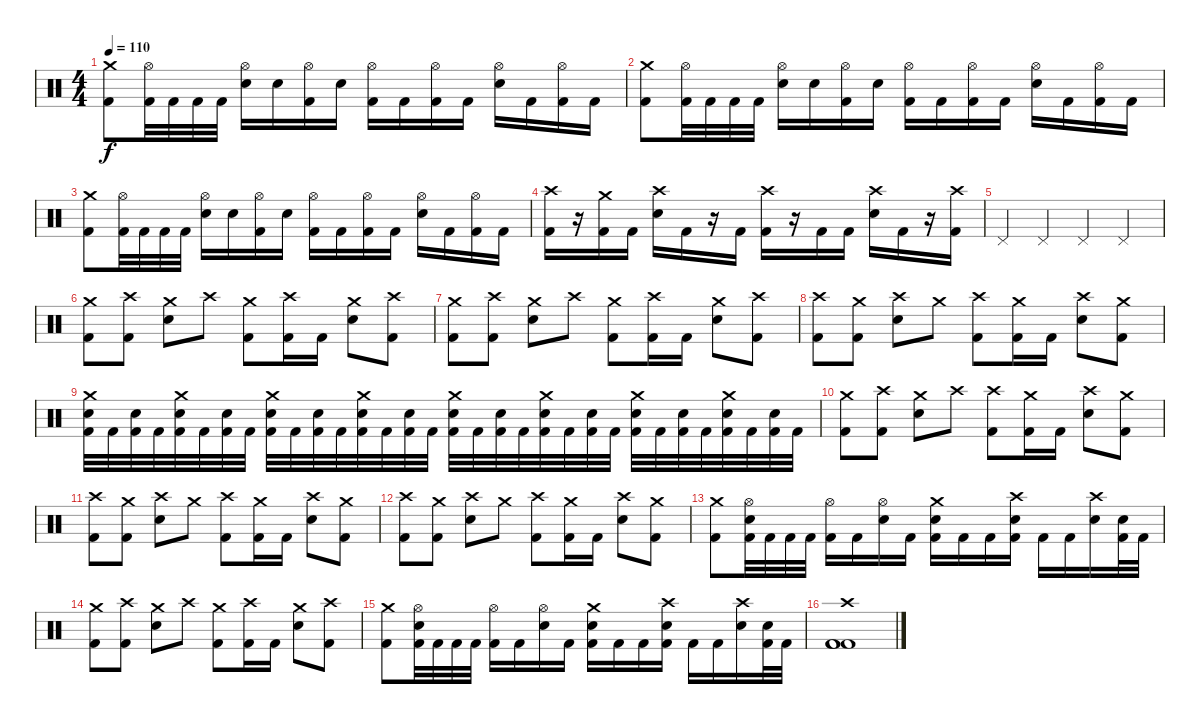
\track "" {instrument percussion}
\staff {score}
\articulation defaults
\ts (4 4)
\tempo 110
\clef neutral
\ks c
("Crash medium (hit)" "Kick (hit) 2").8{dy f} ("Hi-Hat (open)" "Kick (hit) 2").32 "Kick (hit) 2".32 "Kick (hit) 2".32 "Kick (hit) 2".32 ("Hi-Hat (open)" "Electric Snare (hit)").16 "Electric Snare (hit)".16 ("Hi-Hat (open)" "Kick (hit) 2").16 "Electric Snare (hit)".16 ("Hi-Hat (open)" "Kick (hit) 2").16 "Kick (hit) 2".16 ("Hi-Hat (open)" "Kick (hit) 2").16 "Kick (hit) 2".16 ("Hi-Hat (open)" "Electric Snare (hit)").16 "Kick (hit) 2".16 ("Hi-Hat (open)" "Kick (hit) 2").16 "Kick (hit) 2".16 |
("Crash medium (hit)" "Kick (hit) 2").8 ("Hi-Hat (open)" "Kick (hit) 2").32 "Kick (hit) 2".32 "Kick (hit) 2".32 "Kick (hit) 2".32 ("Hi-Hat (open)" "Electric Snare (hit)").16 "Electric Snare (hit)".16 ("Hi-Hat (open)" "Kick (hit) 2").16 "Electric Snare (hit)".16 ("Hi-Hat (open)" "Kick (hit) 2").16 "Kick (hit) 2".16 ("Hi-Hat (open)" "Kick (hit) 2").16 "Kick (hit) 2".16 ("Hi-Hat (open)" "Electric Snare (hit)").16 "Kick (hit) 2".16 ("Hi-Hat (open)" "Kick (hit) 2").16 "Kick (hit) 2".16 |
("Crash medium (hit)" "Kick (hit) 2").8 ("Hi-Hat (open)" "Kick (hit) 2").32 "Kick (hit) 2".32 "Kick (hit) 2".32 "Kick (hit) 2".32 ("Hi-Hat (open)" "Electric Snare (hit)").16 "Electric Snare (hit)".16 ("Hi-Hat (open)" "Kick (hit) 2").16 "Electric Snare (hit)".16 ("Hi-Hat (open)" "Kick (hit) 2").16 "Kick (hit) 2".16 ("Hi-Hat (open)" "Kick (hit) 2").16 "Kick (hit) 2".16 ("Hi-Hat (open)" "Electric Snare (hit)").16 "Kick (hit) 2".16 ("Hi-Hat (open)" "Kick (hit) 2").16 "Kick (hit) 2".16 |
("Crash high (hit)" "Kick (hit) 2").16 r.16 ("Crash medium (hit)" "Kick (hit) 2").16 "Kick (hit) 2".16 ("Crash high (hit)" "Snare (hit) 2").16 "Kick (hit) 2".16 r.16 "Kick (hit) 2".16 ("Crash high (hit)" "Kick (hit) 2").16 r.16 "Kick (hit) 2".16 "Kick (hit) 2".16 ("Crash high (hit)" "Snare (hit) 2").16 "Kick (hit) 2".16 r.16 ("Crash high (hit)" "Kick (hit) 2").16 |
"Pedal Hi-Hat (hit)".4 "Pedal Hi-Hat (hit)".4 "Pedal Hi-Hat (hit)".4 "Pedal Hi-Hat (hit)".4 |
("Crash medium (hit)" "Kick (hit) 2").8 ("Crash high (hit)" "Kick (hit) 2").8 ("Crash medium (hit)" "Electric Snare (hit)").8 "Crash high (hit)".8 ("Crash medium (hit)" "Kick (hit) 2").8 ("Crash high (hit)" "Kick (hit) 2").16 "Kick (hit) 2".16 ("Crash medium (hit)" "Electric Snare (hit)").8 ("Crash high (hit)" "Kick (hit) 2").8 |
("Crash medium (hit)" "Kick (hit) 2").8 ("Crash high (hit)" "Kick (hit) 2").8 ("Crash medium (hit)" "Electric Snare (hit)").8 "Crash high (hit)".8 ("Crash medium (hit)" "Kick (hit) 2").8 ("Crash high (hit)" "Kick (hit) 2").16 "Kick (hit) 2".16 ("Crash medium (hit)" "Electric Snare (hit)").8 ("Crash high (hit)" "Kick (hit) 2").8 |
("Crash high (hit)" "Kick (hit) 2").8 ("Crash medium (hit)" "Kick (hit) 2").8 ("Crash high (hit)" "Electric Snare (hit)").8 "Crash medium (hit)".8 ("Crash high (hit)" "Kick (hit) 2").8 ("Crash medium (hit)" "Kick (hit) 2").16 "Kick (hit) 2".16 ("Crash high (hit)" "Electric Snare (hit)").8 ("Crash medium (hit)" "Kick (hit) 2").8 |
("Crash medium (hit)" "Snare (hit) 2" "Kick (hit) 2").32 "Kick (hit) 2".32 ("Snare (hit) 2" "Kick (hit) 2").32 "Kick (hit) 2".32 ("Crash medium (hit)" "Snare (hit) 2" "Kick (hit) 2").32 "Kick (hit) 2".32 ("Snare (hit) 2" "Kick (hit) 2").32 "Kick (hit) 2".32 ("Crash medium (hit)" "Snare (hit) 2" "Kick (hit) 2").32 "Kick (hit) 2".32 ("Snare (hit) 2" "Kick (hit) 2").32 "Kick (hit) 2".32 ("Crash medium (hit)" "Snare (hit) 2" "Kick (hit) 2").32 "Kick (hit) 2".32 ("Snare (hit) 2" "Kick (hit) 2").32 "Kick (hit) 2".32 ("Crash medium (hit)" "Snare (hit) 2" "Kick (hit) 2").32 "Kick (hit) 2".32 ("Snare (hit) 2" "Kick (hit) 2").32 "Kick (hit) 2".32 ("Crash medium (hit)" "Snare (hit) 2" "Kick (hit) 2").32 "Kick (hit) 2".32 ("Snare (hit) 2" "Kick (hit) 2").32 "Kick (hit) 2".32 ("Crash medium (hit)" "Snare (hit) 2" "Kick (hit) 2").32 "Kick (hit) 2".32 ("Snare (hit) 2" "Kick (hit) 2").32 "Kick (hit) 2".32 ("Crash medium (hit)" "Snare (hit) 2" "Kick (hit) 2").32 "Kick (hit) 2".32 ("Snare (hit) 2" "Kick (hit) 2").32 "Kick (hit) 2".32 |
("Crash medium (hit)" "Kick (hit) 2").8 ("Crash high (hit)" "Kick (hit) 2").8 ("Crash medium (hit)" "Electric Snare (hit)").8 "Crash high (hit)".8 ("Crash high (hit)" "Kick (hit) 2").8 ("Crash medium (hit)" "Kick (hit) 2").16 "Kick (hit) 2".16 ("Crash high (hit)" "Electric Snare (hit)").8 ("Crash medium (hit)" "Kick (hit) 2").8 |
("Crash high (hit)" "Kick (hit) 2").8 ("Crash medium (hit)" "Kick (hit) 2").8 ("Crash high (hit)" "Electric Snare (hit)").8 "Crash medium (hit)".8 ("Crash high (hit)" "Kick (hit) 2").8 ("Crash medium (hit)" "Kick (hit) 2").16 "Kick (hit) 2".16 ("Crash high (hit)" "Electric Snare (hit)").8 ("Crash medium (hit)" "Kick (hit) 2").8 |
("Crash high (hit)" "Kick (hit) 2").8 ("Crash medium (hit)" "Kick (hit) 2").8 ("Crash high (hit)" "Electric Snare (hit)").8 "Crash medium (hit)".8 ("Crash high (hit)" "Kick (hit) 2").8 ("Crash medium (hit)" "Kick (hit) 2").16 "Kick (hit) 2".16 ("Crash high (hit)" "Electric Snare (hit)").8 ("Crash medium (hit)" "Kick (hit) 2").8 |
("Crash medium (hit)" "Kick (hit) 2").8 ("Hi-Hat (open)" "Electric Snare (hit)" "Kick (hit) 2").32 "Kick (hit) 2".32 "Kick (hit) 2".32 "Kick (hit) 2".32 ("Hi-Hat (open)" "Kick (hit) 2").16 "Kick (hit) 2".16 ("Hi-Hat (open)" "Electric Snare (hit)").16 "Kick (hit) 2".16 ("Crash medium (hit)" "Electric Snare (hit)" "Kick (hit) 2").16 "Kick (hit) 2".16 "Kick (hit) 2".16 ("Crash high (hit)" "Electric Snare (hit)" "Kick (hit) 2").16 "Kick (hit) 2".16 "Kick (hit) 2".16 ("Crash high (hit)" "Electric Snare (hit)").16 ("Electric Snare (hit)" "Kick (hit) 2").32 "Kick (hit) 2".32 |
("Crash medium (hit)" "Kick (hit) 2").8 ("Crash high (hit)" "Kick (hit) 2").8 ("Crash medium (hit)" "Electric Snare (hit)").8 "Crash high (hit)".8 ("Crash medium (hit)" "Kick (hit) 2").8 ("Crash high (hit)" "Kick (hit) 2").16 "Kick (hit) 2".16 ("Crash medium (hit)" "Electric Snare (hit)").8 ("Crash high (hit)" "Kick (hit) 2").8 |
("Crash medium (hit)" "Kick (hit) 2").8 ("Hi-Hat (open)" "Electric Snare (hit)" "Kick (hit) 2").32 "Kick (hit) 2".32 "Kick (hit) 2".32 "Kick (hit) 2".32 ("Hi-Hat (open)" "Kick (hit) 2").16 "Kick (hit) 2".16 ("Hi-Hat (open)" "Electric Snare (hit)").16 "Kick (hit) 2".16 ("Crash medium (hit)" "Electric Snare (hit)" "Kick (hit) 2").16 "Kick (hit) 2".16 "Kick (hit) 2".16 ("Crash high (hit)" "Electric Snare (hit)" "Kick (hit) 2").16 "Kick (hit) 2".16 "Kick (hit) 2".16 ("Crash high (hit)" "Electric Snare (hit)").16 ("Electric Snare (hit)" "Kick (hit) 2").32 "Kick (hit) 2".32 |
("Crash high (hit)" "Kick (hit) 2" "Kick (hit) 2" "Kick (hit) 2").1
